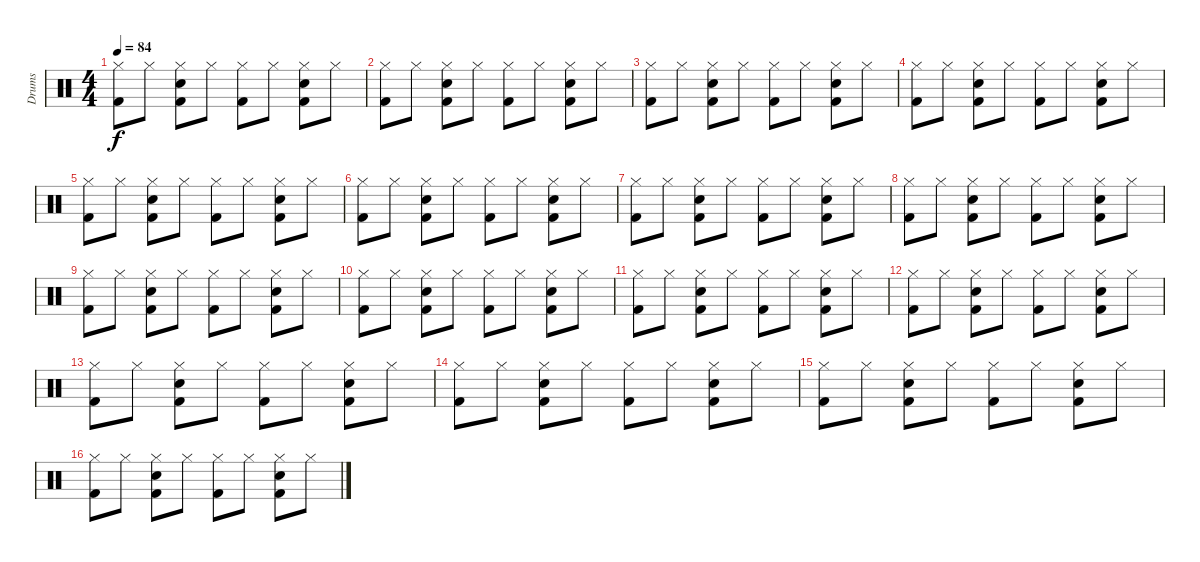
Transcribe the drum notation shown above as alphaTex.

\track ("Drums" "Drums") {instrument percussion}
\staff {score}
\articulation defaults
\ts (4 4)
\tempo 84
\clef neutral
\ks c
("Hi-Hat (closed)" "Kick (hit) 2").8{dy f} "Hi-Hat (closed)".8 ("Hi-Hat (closed)" "Snare (hit) 2" "Kick (hit) 2").8 "Hi-Hat (closed)".8 ("Hi-Hat (closed)" "Kick (hit) 2").8 "Hi-Hat (closed)".8 ("Hi-Hat (closed)" "Snare (hit) 2" "Kick (hit) 2").8 "Hi-Hat (closed)".8 |
("Hi-Hat (closed)" "Kick (hit) 2").8 "Hi-Hat (closed)".8 ("Hi-Hat (closed)" "Snare (hit) 2" "Kick (hit) 2").8 "Hi-Hat (closed)".8 ("Hi-Hat (closed)" "Kick (hit) 2").8 "Hi-Hat (closed)".8 ("Hi-Hat (closed)" "Snare (hit) 2" "Kick (hit) 2").8 "Hi-Hat (closed)".8 |
("Hi-Hat (closed)" "Kick (hit) 2").8 "Hi-Hat (closed)".8 ("Hi-Hat (closed)" "Snare (hit) 2" "Kick (hit) 2").8 "Hi-Hat (closed)".8 ("Hi-Hat (closed)" "Kick (hit) 2").8 "Hi-Hat (closed)".8 ("Hi-Hat (closed)" "Snare (hit) 2" "Kick (hit) 2").8 "Hi-Hat (closed)".8 |
("Hi-Hat (closed)" "Kick (hit) 2").8 "Hi-Hat (closed)".8 ("Hi-Hat (closed)" "Snare (hit) 2" "Kick (hit) 2").8 "Hi-Hat (closed)".8 ("Hi-Hat (closed)" "Kick (hit) 2").8 "Hi-Hat (closed)".8 ("Hi-Hat (closed)" "Snare (hit) 2" "Kick (hit) 2").8 "Hi-Hat (closed)".8 |
("Hi-Hat (closed)" "Kick (hit) 2").8 "Hi-Hat (closed)".8 ("Hi-Hat (closed)" "Snare (hit) 2" "Kick (hit) 2").8 "Hi-Hat (closed)".8 ("Hi-Hat (closed)" "Kick (hit) 2").8 "Hi-Hat (closed)".8 ("Hi-Hat (closed)" "Snare (hit) 2" "Kick (hit) 2").8 "Hi-Hat (closed)".8 |
("Hi-Hat (closed)" "Kick (hit) 2").8 "Hi-Hat (closed)".8 ("Hi-Hat (closed)" "Snare (hit) 2" "Kick (hit) 2").8 "Hi-Hat (closed)".8 ("Hi-Hat (closed)" "Kick (hit) 2").8 "Hi-Hat (closed)".8 ("Hi-Hat (closed)" "Snare (hit) 2" "Kick (hit) 2").8 "Hi-Hat (closed)".8 |
("Hi-Hat (closed)" "Kick (hit) 2").8 "Hi-Hat (closed)".8 ("Hi-Hat (closed)" "Snare (hit) 2" "Kick (hit) 2").8 "Hi-Hat (closed)".8 ("Hi-Hat (closed)" "Kick (hit) 2").8 "Hi-Hat (closed)".8 ("Hi-Hat (closed)" "Snare (hit) 2" "Kick (hit) 2").8 "Hi-Hat (closed)".8 |
("Hi-Hat (closed)" "Kick (hit) 2").8 "Hi-Hat (closed)".8 ("Hi-Hat (closed)" "Snare (hit) 2" "Kick (hit) 2").8 "Hi-Hat (closed)".8 ("Hi-Hat (closed)" "Kick (hit) 2").8 "Hi-Hat (closed)".8 ("Hi-Hat (closed)" "Snare (hit) 2" "Kick (hit) 2").8 "Hi-Hat (closed)".8 |
("Hi-Hat (closed)" "Kick (hit) 2").8 "Hi-Hat (closed)".8 ("Hi-Hat (closed)" "Snare (hit) 2" "Kick (hit) 2").8 "Hi-Hat (closed)".8 ("Hi-Hat (closed)" "Kick (hit) 2").8 "Hi-Hat (closed)".8 ("Hi-Hat (closed)" "Snare (hit) 2" "Kick (hit) 2").8 "Hi-Hat (closed)".8 |
("Hi-Hat (closed)" "Kick (hit) 2").8 "Hi-Hat (closed)".8 ("Hi-Hat (closed)" "Snare (hit) 2" "Kick (hit) 2").8 "Hi-Hat (closed)".8 ("Hi-Hat (closed)" "Kick (hit) 2").8 "Hi-Hat (closed)".8 ("Hi-Hat (closed)" "Snare (hit) 2" "Kick (hit) 2").8 "Hi-Hat (closed)".8 |
("Hi-Hat (closed)" "Kick (hit) 2").8 "Hi-Hat (closed)".8 ("Hi-Hat (closed)" "Snare (hit) 2" "Kick (hit) 2").8 "Hi-Hat (closed)".8 ("Hi-Hat (closed)" "Kick (hit) 2").8 "Hi-Hat (closed)".8 ("Hi-Hat (closed)" "Snare (hit) 2" "Kick (hit) 2").8 "Hi-Hat (closed)".8 |
("Hi-Hat (closed)" "Kick (hit) 2").8 "Hi-Hat (closed)".8 ("Hi-Hat (closed)" "Snare (hit) 2" "Kick (hit) 2").8 "Hi-Hat (closed)".8 ("Hi-Hat (closed)" "Kick (hit) 2").8 "Hi-Hat (closed)".8 ("Hi-Hat (closed)" "Snare (hit) 2" "Kick (hit) 2").8 "Hi-Hat (closed)".8 |
("Hi-Hat (closed)" "Kick (hit) 2").8 "Hi-Hat (closed)".8 ("Hi-Hat (closed)" "Snare (hit) 2" "Kick (hit) 2").8 "Hi-Hat (closed)".8 ("Hi-Hat (closed)" "Kick (hit) 2").8 "Hi-Hat (closed)".8 ("Hi-Hat (closed)" "Snare (hit) 2" "Kick (hit) 2").8 "Hi-Hat (closed)".8 |
("Hi-Hat (closed)" "Kick (hit) 2").8 "Hi-Hat (closed)".8 ("Hi-Hat (closed)" "Snare (hit) 2" "Kick (hit) 2").8 "Hi-Hat (closed)".8 ("Hi-Hat (closed)" "Kick (hit) 2").8 "Hi-Hat (closed)".8 ("Hi-Hat (closed)" "Snare (hit) 2" "Kick (hit) 2").8 "Hi-Hat (closed)".8 |
("Hi-Hat (closed)" "Kick (hit) 2").8 "Hi-Hat (closed)".8 ("Hi-Hat (closed)" "Snare (hit) 2" "Kick (hit) 2").8 "Hi-Hat (closed)".8 ("Hi-Hat (closed)" "Kick (hit) 2").8 "Hi-Hat (closed)".8 ("Hi-Hat (closed)" "Snare (hit) 2" "Kick (hit) 2").8 "Hi-Hat (closed)".8 |
("Hi-Hat (closed)" "Kick (hit) 2").8 "Hi-Hat (closed)".8 ("Hi-Hat (closed)" "Snare (hit) 2" "Kick (hit) 2").8 "Hi-Hat (closed)".8 ("Hi-Hat (closed)" "Kick (hit) 2").8 "Hi-Hat (closed)".8 ("Hi-Hat (closed)" "Snare (hit) 2" "Kick (hit) 2").8 "Hi-Hat (closed)".8
